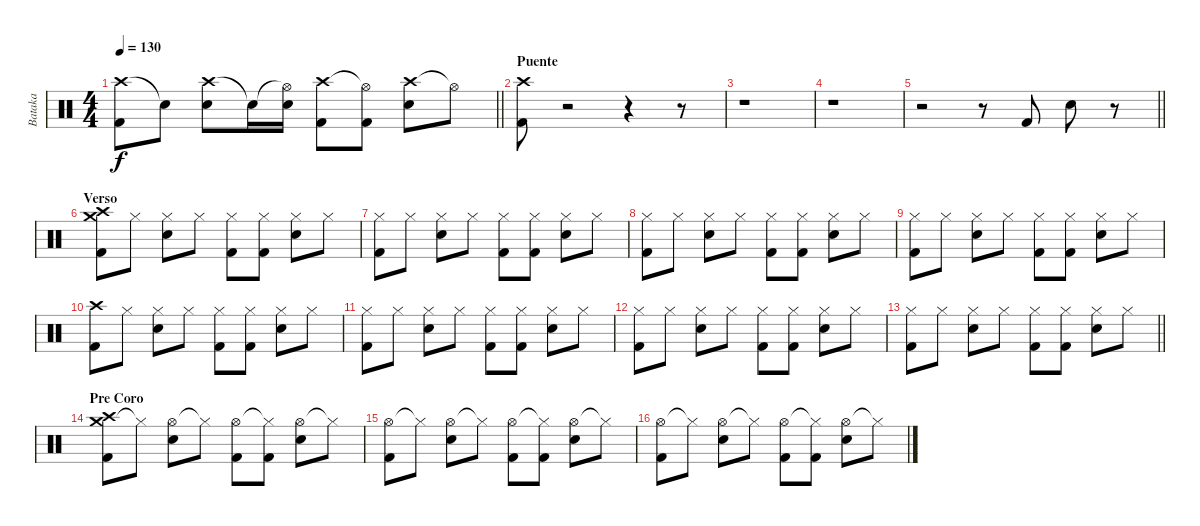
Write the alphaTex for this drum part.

\track ("Bataka" "Bataka") {instrument percussion}
\staff {score}
\articulation defaults
\ts (4 4)
\tempo 130
\clef neutral
\barLineRight lightlight
\ks c
("Crash high (hit)" "Kick (hit) 2").8{dy f} "Snare (hit)"{t}.8 ("Crash high (hit)" "Electric Snare (hit)").8 "Snare (hit)"{t}.16 ("Hi-Hat (open)"{t} "Electric Snare (hit)").16 ("Crash high (hit)" "Kick (hit) 2").8 ("Hi-Hat (open)"{t} "Kick (hit) 2").8 ("Crash high (hit)" "Electric Snare (hit)").8 "Hi-Hat (open)"{t}.8 |
\section ("" "Puente")
("Crash high (hit)" "Kick (hit) 2").8 r.2 r.4 r.8 |
r.1 |
r.1 |
\barLineRight lightlight
r.2 r.8 "Kick (hit) 2".8 "Electric Snare (hit)".8 r.8 |
\section ("" "Verso")
("Crash medium (hit)" "Crash high (hit)" "Kick (hit) 2").8 "Hi-Hat (closed)".8 ("Hi-Hat (closed)" "Electric Snare (hit)").8 "Hi-Hat (closed)".8 ("Hi-Hat (closed)" "Kick (hit) 2").8 ("Hi-Hat (closed)" "Kick (hit) 2").8 ("Hi-Hat (closed)" "Electric Snare (hit)").8 "Hi-Hat (closed)".8 |
("Hi-Hat (closed)" "Kick (hit) 2").8 "Hi-Hat (closed)".8 ("Hi-Hat (closed)" "Electric Snare (hit)").8 "Hi-Hat (closed)".8 ("Hi-Hat (closed)" "Kick (hit) 2").8 ("Hi-Hat (closed)" "Kick (hit) 2").8 ("Hi-Hat (closed)" "Electric Snare (hit)").8 "Hi-Hat (closed)".8 |
("Hi-Hat (closed)" "Kick (hit) 2").8 "Hi-Hat (closed)".8 ("Hi-Hat (closed)" "Electric Snare (hit)").8 "Hi-Hat (closed)".8 ("Hi-Hat (closed)" "Kick (hit) 2").8 ("Hi-Hat (closed)" "Kick (hit) 2").8 ("Hi-Hat (closed)" "Electric Snare (hit)").8 "Hi-Hat (closed)".8 |
("Hi-Hat (closed)" "Kick (hit) 2").8 "Hi-Hat (closed)".8 ("Hi-Hat (closed)" "Electric Snare (hit)").8 "Hi-Hat (closed)".8 ("Hi-Hat (closed)" "Kick (hit) 2").8 ("Hi-Hat (closed)" "Kick (hit) 2").8 ("Hi-Hat (closed)" "Electric Snare (hit)").8 "Hi-Hat (closed)".8 |
("Crash high (hit)" "Kick (hit) 2").8 "Hi-Hat (closed)".8 ("Hi-Hat (closed)" "Electric Snare (hit)").8 "Hi-Hat (closed)".8 ("Hi-Hat (closed)" "Kick (hit) 2").8 ("Hi-Hat (closed)" "Kick (hit) 2").8 ("Hi-Hat (closed)" "Electric Snare (hit)").8 "Hi-Hat (closed)".8 |
("Hi-Hat (closed)" "Kick (hit) 2").8 "Hi-Hat (closed)".8 ("Hi-Hat (closed)" "Electric Snare (hit)").8 "Hi-Hat (closed)".8 ("Hi-Hat (closed)" "Kick (hit) 2").8 ("Hi-Hat (closed)" "Kick (hit) 2").8 ("Hi-Hat (closed)" "Electric Snare (hit)").8 "Hi-Hat (closed)".8 |
("Hi-Hat (closed)" "Kick (hit) 2").8 "Hi-Hat (closed)".8 ("Hi-Hat (closed)" "Electric Snare (hit)").8 "Hi-Hat (closed)".8 ("Hi-Hat (closed)" "Kick (hit) 2").8 ("Hi-Hat (closed)" "Kick (hit) 2").8 ("Hi-Hat (closed)" "Electric Snare (hit)").8 "Hi-Hat (closed)".8 |
\barLineRight lightlight
("Hi-Hat (closed)" "Kick (hit) 2").8 "Hi-Hat (closed)".8 ("Hi-Hat (closed)" "Electric Snare (hit)").8 "Hi-Hat (closed)".8 ("Hi-Hat (closed)" "Kick (hit) 2").8 ("Hi-Hat (closed)" "Kick (hit) 2").8 ("Hi-Hat (closed)" "Electric Snare (hit)").8 "Hi-Hat (closed)".8 |
\section ("" "Pre Coro")
("Crash medium (hit)" "Crash high (hit)" "Kick (hit) 2").8 "Hi-Hat (closed)"{t}.8 ("Hi-Hat (open)" "Electric Snare (hit)").8 "Hi-Hat (closed)"{t}.8 ("Hi-Hat (open)" "Kick (hit) 2").8 ("Hi-Hat (closed)"{t} "Kick (hit) 2").8 ("Hi-Hat (open)" "Electric Snare (hit)").8 "Hi-Hat (closed)"{t}.8 |
("Hi-Hat (open)" "Kick (hit) 2").8 "Hi-Hat (closed)"{t}.8 ("Hi-Hat (open)" "Electric Snare (hit)").8 "Hi-Hat (closed)"{t}.8 ("Hi-Hat (open)" "Kick (hit) 2").8 ("Hi-Hat (closed)"{t} "Kick (hit) 2").8 ("Hi-Hat (open)" "Electric Snare (hit)").8 "Hi-Hat (closed)"{t}.8 |
("Hi-Hat (open)" "Kick (hit) 2").8 "Hi-Hat (closed)"{t}.8 ("Hi-Hat (open)" "Electric Snare (hit)").8 "Hi-Hat (closed)"{t}.8 ("Hi-Hat (open)" "Kick (hit) 2").8 ("Hi-Hat (closed)"{t} "Kick (hit) 2").8 ("Hi-Hat (open)" "Electric Snare (hit)").8 "Hi-Hat (closed)"{t}.8
